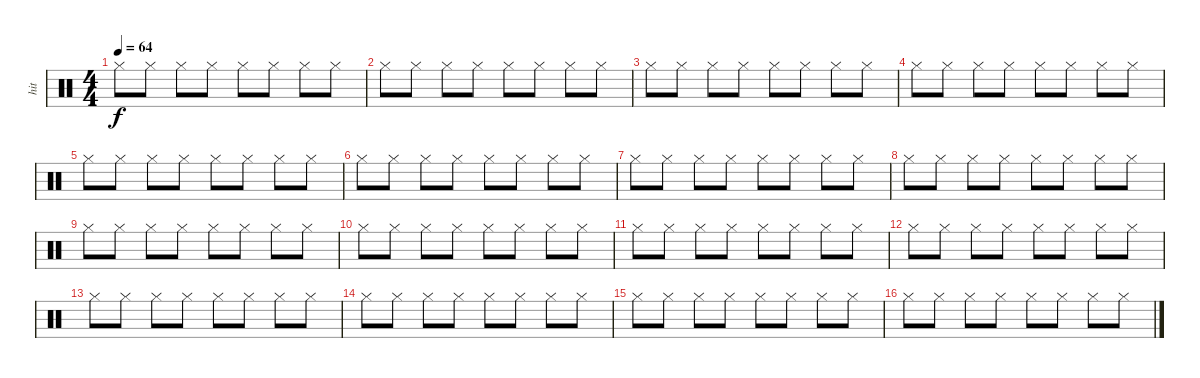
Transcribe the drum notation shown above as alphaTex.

\track ("hit" "hit") {instrument percussion}
\staff {score}
\articulation defaults
\ts (4 4)
\tempo 64
\clef neutral
\ks c "Hi-Hat (closed)".8{dy f} "Hi-Hat (closed)".8 "Hi-Hat (closed)".8 "Hi-Hat (closed)".8 "Hi-Hat (closed)".8 "Hi-Hat (closed)".8 "Hi-Hat (closed)".8 "Hi-Hat (closed)".8
|
"Hi-Hat (closed)".8 "Hi-Hat (closed)".8 "Hi-Hat (closed)".8 "Hi-Hat (closed)".8 "Hi-Hat (closed)".8 "Hi-Hat (closed)".8 "Hi-Hat (closed)".8 "Hi-Hat (closed)".8 |
"Hi-Hat (closed)".8 "Hi-Hat (closed)".8 "Hi-Hat (closed)".8 "Hi-Hat (closed)".8 "Hi-Hat (closed)".8 "Hi-Hat (closed)".8 "Hi-Hat (closed)".8 "Hi-Hat (closed)".8 |
"Hi-Hat (closed)".8 "Hi-Hat (closed)".8 "Hi-Hat (closed)".8 "Hi-Hat (closed)".8 "Hi-Hat (closed)".8 "Hi-Hat (closed)".8 "Hi-Hat (closed)".8 "Hi-Hat (closed)".8 |
"Hi-Hat (closed)".8 "Hi-Hat (closed)".8 "Hi-Hat (closed)".8 "Hi-Hat (closed)".8 "Hi-Hat (closed)".8 "Hi-Hat (closed)".8 "Hi-Hat (closed)".8 "Hi-Hat (closed)".8 |
"Hi-Hat (closed)".8 "Hi-Hat (closed)".8 "Hi-Hat (closed)".8 "Hi-Hat (closed)".8 "Hi-Hat (closed)".8 "Hi-Hat (closed)".8 "Hi-Hat (closed)".8 "Hi-Hat (closed)".8 |
"Hi-Hat (closed)".8 "Hi-Hat (closed)".8 "Hi-Hat (closed)".8 "Hi-Hat (closed)".8 "Hi-Hat (closed)".8 "Hi-Hat (closed)".8 "Hi-Hat (closed)".8 "Hi-Hat (closed)".8 |
"Hi-Hat (closed)".8 "Hi-Hat (closed)".8 "Hi-Hat (closed)".8 "Hi-Hat (closed)".8 "Hi-Hat (closed)".8 "Hi-Hat (closed)".8 "Hi-Hat (closed)".8 "Hi-Hat (closed)".8 |
"Hi-Hat (closed)".8 "Hi-Hat (closed)".8 "Hi-Hat (closed)".8 "Hi-Hat (closed)".8 "Hi-Hat (closed)".8 "Hi-Hat (closed)".8 "Hi-Hat (closed)".8 "Hi-Hat (closed)".8 |
"Hi-Hat (closed)".8 "Hi-Hat (closed)".8 "Hi-Hat (closed)".8 "Hi-Hat (closed)".8 "Hi-Hat (closed)".8 "Hi-Hat (closed)".8 "Hi-Hat (closed)".8 "Hi-Hat (closed)".8 |
"Hi-Hat (closed)".8 "Hi-Hat (closed)".8 "Hi-Hat (closed)".8 "Hi-Hat (closed)".8 "Hi-Hat (closed)".8 "Hi-Hat (closed)".8 "Hi-Hat (closed)".8 "Hi-Hat (closed)".8 |
"Hi-Hat (closed)".8 "Hi-Hat (closed)".8 "Hi-Hat (closed)".8 "Hi-Hat (closed)".8 "Hi-Hat (closed)".8 "Hi-Hat (closed)".8 "Hi-Hat (closed)".8 "Hi-Hat (closed)".8 |
"Hi-Hat (closed)".8 "Hi-Hat (closed)".8 "Hi-Hat (closed)".8 "Hi-Hat (closed)".8 "Hi-Hat (closed)".8 "Hi-Hat (closed)".8 "Hi-Hat (closed)".8 "Hi-Hat (closed)".8 |
"Hi-Hat (closed)".8 "Hi-Hat (closed)".8 "Hi-Hat (closed)".8 "Hi-Hat (closed)".8 "Hi-Hat (closed)".8 "Hi-Hat (closed)".8 "Hi-Hat (closed)".8 "Hi-Hat (closed)".8 |
"Hi-Hat (closed)".8 "Hi-Hat (closed)".8 "Hi-Hat (closed)".8 "Hi-Hat (closed)".8 "Hi-Hat (closed)".8 "Hi-Hat (closed)".8 "Hi-Hat (closed)".8 "Hi-Hat (closed)".8 |
"Hi-Hat (closed)".8 "Hi-Hat (closed)".8 "Hi-Hat (closed)".8 "Hi-Hat (closed)".8 "Hi-Hat (closed)".8 "Hi-Hat (closed)".8 "Hi-Hat (closed)".8 "Hi-Hat (closed)".8
